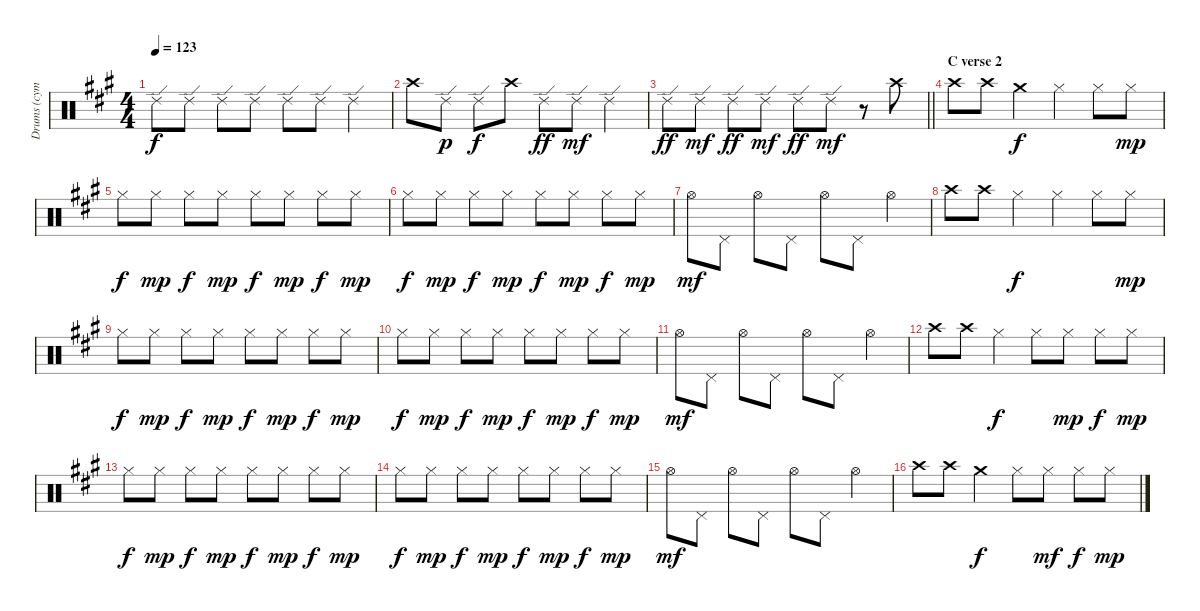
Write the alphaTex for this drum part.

\track ("Drums (cymbals)" "Drums (cym") {instrument percussion}
\staff {score}
\articulation defaults
\ts (4 4)
\tempo 123
\clef neutral
\ks a "Ride (edge) 2".8{dy f} "Ride (edge) 2".8 "Ride (edge) 2".8 "Ride (edge) 2".8 "Ride (edge) 2".8 "Ride (edge) 2".8 "Ride (edge) 2".4
|
"Crash high (hit)".8 "Ride (edge) 2".8{dy p} "Ride (edge) 2".8{dy f} "Crash high (hit)".8 "Ride (edge) 2".8{dy ff} "Ride (edge) 2".8{dy mf} "Ride (edge) 2".4 |
\barLineRight lightlight "Ride (edge) 2".8{dy ff} "Ride (edge) 2".8{dy mf} "Ride (edge) 2".8{dy ff} "Ride (edge) 2".8{dy mf} "Ride (edge) 2".8{dy ff} "Ride (edge) 2".8{dy mf}
r.8 "Crash high (hit)".8 |
\section ("" "C verse 2")
"Crash high (hit)".8 "Crash high (hit)".8 "Crash medium (hit)".4{dy f} "Hi-Hat (closed)".4 "Hi-Hat (closed)".8 "Hi-Hat (closed)".8{dy mp} |
"Hi-Hat (closed)".8{dy f} "Hi-Hat (closed)".8{dy mp} "Hi-Hat (closed)".8{dy f} "Hi-Hat (closed)".8{dy mp} "Hi-Hat (closed)".8{dy f} "Hi-Hat (closed)".8{dy mp} "Hi-Hat (closed)".8{dy f} "Hi-Hat (closed)".8{dy mp} |
"Hi-Hat (closed)".8{dy f} "Hi-Hat (closed)".8{dy mp} "Hi-Hat (closed)".8{dy f} "Hi-Hat (closed)".8{dy mp} "Hi-Hat (closed)".8{dy f} "Hi-Hat (closed)".8{dy mp} "Hi-Hat (closed)".8{dy f} "Hi-Hat (closed)".8{dy mp} |
"Hi-Hat (open)".8{dy mf} "Pedal Hi-Hat (hit)".8 "Hi-Hat (open)".8 "Pedal Hi-Hat (hit)".8 "Hi-Hat (open)".8 "Pedal Hi-Hat (hit)".8 "Hi-Hat (open)".4 |
"Crash high (hit)".8 "Crash high (hit)".8 "Hi-Hat (closed)".4{dy f} "Hi-Hat (closed)".4 "Hi-Hat (closed)".8 "Hi-Hat (closed)".8{dy mp} |
"Hi-Hat (closed)".8{dy f} "Hi-Hat (closed)".8{dy mp} "Hi-Hat (closed)".8{dy f} "Hi-Hat (closed)".8{dy mp} "Hi-Hat (closed)".8{dy f} "Hi-Hat (closed)".8{dy mp} "Hi-Hat (closed)".8{dy f} "Hi-Hat (closed)".8{dy mp} |
"Hi-Hat (closed)".8{dy f} "Hi-Hat (closed)".8{dy mp} "Hi-Hat (closed)".8{dy f} "Hi-Hat (closed)".8{dy mp} "Hi-Hat (closed)".8{dy f} "Hi-Hat (closed)".8{dy mp} "Hi-Hat (closed)".8{dy f} "Hi-Hat (closed)".8{dy mp} |
"Hi-Hat (open)".8{dy mf} "Pedal Hi-Hat (hit)".8 "Hi-Hat (open)".8 "Pedal Hi-Hat (hit)".8 "Hi-Hat (open)".8 "Pedal Hi-Hat (hit)".8 "Hi-Hat (open)".4 |
"Crash high (hit)".8 "Crash high (hit)".8 "Hi-Hat (closed)".4{dy f} "Hi-Hat (closed)".8 "Hi-Hat (closed)".8{dy mp} "Hi-Hat (closed)".8{dy f} "Hi-Hat (closed)".8{dy mp} |
"Hi-Hat (closed)".8{dy f} "Hi-Hat (closed)".8{dy mp} "Hi-Hat (closed)".8{dy f} "Hi-Hat (closed)".8{dy mp} "Hi-Hat (closed)".8{dy f} "Hi-Hat (closed)".8{dy mp} "Hi-Hat (closed)".8{dy f} "Hi-Hat (closed)".8{dy mp} |
"Hi-Hat (closed)".8{dy f} "Hi-Hat (closed)".8{dy mp} "Hi-Hat (closed)".8{dy f} "Hi-Hat (closed)".8{dy mp} "Hi-Hat (closed)".8{dy f} "Hi-Hat (closed)".8{dy mp} "Hi-Hat (closed)".8{dy f} "Hi-Hat (closed)".8{dy mp} |
"Hi-Hat (open)".8{dy mf} "Pedal Hi-Hat (hit)".8 "Hi-Hat (open)".8 "Pedal Hi-Hat (hit)".8 "Hi-Hat (open)".8 "Pedal Hi-Hat (hit)".8 "Hi-Hat (open)".4 |
"Crash high (hit)".8 "Crash high (hit)".8 "Crash medium (hit)".4{dy f} "Hi-Hat (closed)".8 "Hi-Hat (closed)".8{dy mf} "Hi-Hat (closed)".8{dy f} "Hi-Hat (closed)".8{dy mp}
